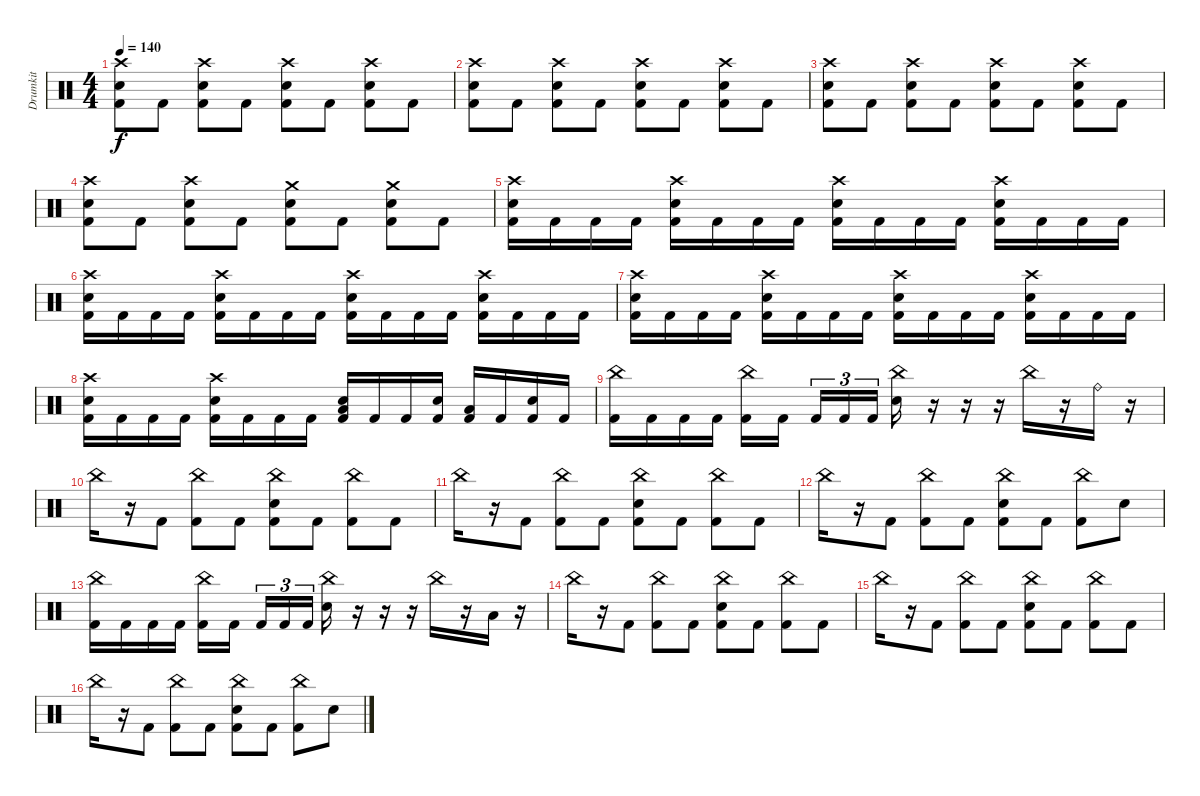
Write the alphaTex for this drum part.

\track ("Drumkit" "Drumkit") {instrument percussion}
\staff {score}
\articulation defaults
\ts (4 4)
\tempo 140
\clef neutral
\ks c
("Crash high (hit)" "Electric Snare (hit)" "Kick (hit) 2").8{dy f} "Kick (hit) 2".8 ("Crash high (hit)" "Electric Snare (hit)" "Kick (hit) 2").8 "Kick (hit) 2".8 ("Crash high (hit)" "Electric Snare (hit)" "Kick (hit) 2").8 "Kick (hit) 2".8 ("Crash high (hit)" "Electric Snare (hit)" "Kick (hit) 2").8 "Kick (hit) 2".8 |
("Crash high (hit)" "Electric Snare (hit)" "Kick (hit) 2").8 "Kick (hit) 2".8 ("Crash high (hit)" "Electric Snare (hit)" "Kick (hit) 2").8 "Kick (hit) 2".8 ("Crash high (hit)" "Electric Snare (hit)" "Kick (hit) 2").8 "Kick (hit) 2".8 ("Crash high (hit)" "Electric Snare (hit)" "Kick (hit) 2").8 "Kick (hit) 2".8 |
("Crash high (hit)" "Electric Snare (hit)" "Kick (hit) 2").8 "Kick (hit) 2".8 ("Crash high (hit)" "Electric Snare (hit)" "Kick (hit) 2").8 "Kick (hit) 2".8 ("Crash high (hit)" "Electric Snare (hit)" "Kick (hit) 2").8 "Kick (hit) 2".8 ("Crash high (hit)" "Electric Snare (hit)" "Kick (hit) 2").8 "Kick (hit) 2".8 |
("Crash high (hit)" "Electric Snare (hit)" "Kick (hit) 2").8 "Kick (hit) 2".8 ("Crash high (hit)" "Electric Snare (hit)" "Kick (hit) 2").8 "Kick (hit) 2".8 ("Crash medium (hit)" "Electric Snare (hit)" "Kick (hit) 2").8 "Kick (hit) 2".8 ("Crash medium (hit)" "Electric Snare (hit)" "Kick (hit) 2").8 "Kick (hit) 2".8 |
("Crash high (hit)" "Electric Snare (hit)" "Kick (hit) 2").16 "Kick (hit) 2".16 "Kick (hit) 2".16 "Kick (hit) 2".16 ("Crash high (hit)" "Electric Snare (hit)" "Kick (hit) 2").16 "Kick (hit) 2".16 "Kick (hit) 2".16 "Kick (hit) 2".16 ("Crash high (hit)" "Electric Snare (hit)" "Kick (hit) 2").16 "Kick (hit) 2".16 "Kick (hit) 2".16 "Kick (hit) 2".16 ("Crash high (hit)" "Electric Snare (hit)" "Kick (hit) 2").16 "Kick (hit) 2".16 "Kick (hit) 2".16 "Kick (hit) 2".16 |
("Crash high (hit)" "Electric Snare (hit)" "Kick (hit) 2").16 "Kick (hit) 2".16 "Kick (hit) 2".16 "Kick (hit) 2".16 ("Crash high (hit)" "Electric Snare (hit)" "Kick (hit) 2").16 "Kick (hit) 2".16 "Kick (hit) 2".16 "Kick (hit) 2".16 ("Crash high (hit)" "Electric Snare (hit)" "Kick (hit) 2").16 "Kick (hit) 2".16 "Kick (hit) 2".16 "Kick (hit) 2".16 ("Crash high (hit)" "Electric Snare (hit)" "Kick (hit) 2").16 "Kick (hit) 2".16 "Kick (hit) 2".16 "Kick (hit) 2".16 |
("Crash high (hit)" "Electric Snare (hit)" "Kick (hit) 2").16 "Kick (hit) 2".16 "Kick (hit) 2".16 "Kick (hit) 2".16 ("Crash high (hit)" "Electric Snare (hit)" "Kick (hit) 2").16 "Kick (hit) 2".16 "Kick (hit) 2".16 "Kick (hit) 2".16 ("Crash high (hit)" "Electric Snare (hit)" "Kick (hit) 2").16 "Kick (hit) 2".16 "Kick (hit) 2".16 "Kick (hit) 2".16 ("Crash high (hit)" "Electric Snare (hit)" "Kick (hit) 2").16 "Kick (hit) 2".16 "Kick (hit) 2".16 "Kick (hit) 2".16 |
("Crash high (hit)" "Electric Snare (hit)" "Kick (hit) 2").16 "Kick (hit) 2".16 "Kick (hit) 2".16 "Kick (hit) 2".16 ("Crash high (hit)" "Electric Snare (hit)" "Kick (hit) 2").16 "Kick (hit) 2".16 "Kick (hit) 2".16 "Kick (hit) 2".16 ("Low Floor Tom (hit)" "Electric Snare (hit)" "Kick (hit) 2").16 "Kick (hit) 2".16 "Kick (hit) 2".16 ("Electric Snare (hit)" "Kick (hit) 2").16 ("Low Floor Tom (hit)" "Kick (hit) 2").16 "Kick (hit) 2".16 ("Electric Snare (hit)" "Kick (hit) 2").16 "Kick (hit) 2".16 |
("China (hit)" "Kick (hit) 2").16 "Kick (hit) 2".16 "Kick (hit) 2".16 "Kick (hit) 2".16 ("China (hit)" "Kick (hit) 2").16 "Kick (hit) 2".16{beam splitsecondary} "Kick (hit) 2".16{tu (3 2)} "Kick (hit) 2".16{tu (3 2)} "Kick (hit) 2".16{tu (3 2)} ("China (hit)" "Electric Snare (hit)").16 r.16 r.16 r.16 "China (hit)".16 r.16 "Ride (bell)".16 r.16 |
"China (hit)".16 r.16 "Kick (hit) 2".8 ("China (hit)" "Kick (hit) 2").8 "Kick (hit) 2".8 ("China (hit)" "Electric Snare (hit)" "Kick (hit) 2").8 "Kick (hit) 2".8 ("China (hit)" "Kick (hit) 2").8 "Kick (hit) 2".8 |
"China (hit)".16 r.16 "Kick (hit) 2".8 ("China (hit)" "Kick (hit) 2").8 "Kick (hit) 2".8 ("China (hit)" "Electric Snare (hit)" "Kick (hit) 2").8 "Kick (hit) 2".8 ("China (hit)" "Kick (hit) 2").8 "Kick (hit) 2".8 |
"China (hit)".16 r.16 "Kick (hit) 2".8 ("China (hit)" "Kick (hit) 2").8 "Kick (hit) 2".8 ("China (hit)" "Electric Snare (hit)" "Kick (hit) 2").8 "Kick (hit) 2".8 ("China (hit)" "Kick (hit) 2").8 "Electric Snare (hit)".8 |
("China (hit)" "Kick (hit) 2").16 "Kick (hit) 2".16 "Kick (hit) 2".16 "Kick (hit) 2".16 ("China (hit)" "Kick (hit) 2").16 "Kick (hit) 2".16{beam splitsecondary} "Kick (hit) 2".16{tu (3 2)} "Kick (hit) 2".16{tu (3 2)} "Kick (hit) 2".16{tu (3 2)} ("China (hit)" "Electric Snare (hit)").16 r.16 r.16 r.16 "China (hit)".16 r.16 "Low Floor Tom (hit)".16 r.16 |
"China (hit)".16 r.16 "Kick (hit) 2".8 ("China (hit)" "Kick (hit) 2").8 "Kick (hit) 2".8 ("China (hit)" "Electric Snare (hit)" "Kick (hit) 2").8 "Kick (hit) 2".8 ("China (hit)" "Kick (hit) 2").8 "Kick (hit) 2".8 |
"China (hit)".16 r.16 "Kick (hit) 2".8 ("China (hit)" "Kick (hit) 2").8 "Kick (hit) 2".8 ("China (hit)" "Electric Snare (hit)" "Kick (hit) 2").8 "Kick (hit) 2".8 ("China (hit)" "Kick (hit) 2").8 "Kick (hit) 2".8 |
"China (hit)".16 r.16 "Kick (hit) 2".8 ("China (hit)" "Kick (hit) 2").8 "Kick (hit) 2".8 ("China (hit)" "Electric Snare (hit)" "Kick (hit) 2").8 "Kick (hit) 2".8 ("China (hit)" "Kick (hit) 2").8 "Electric Snare (hit)".8
